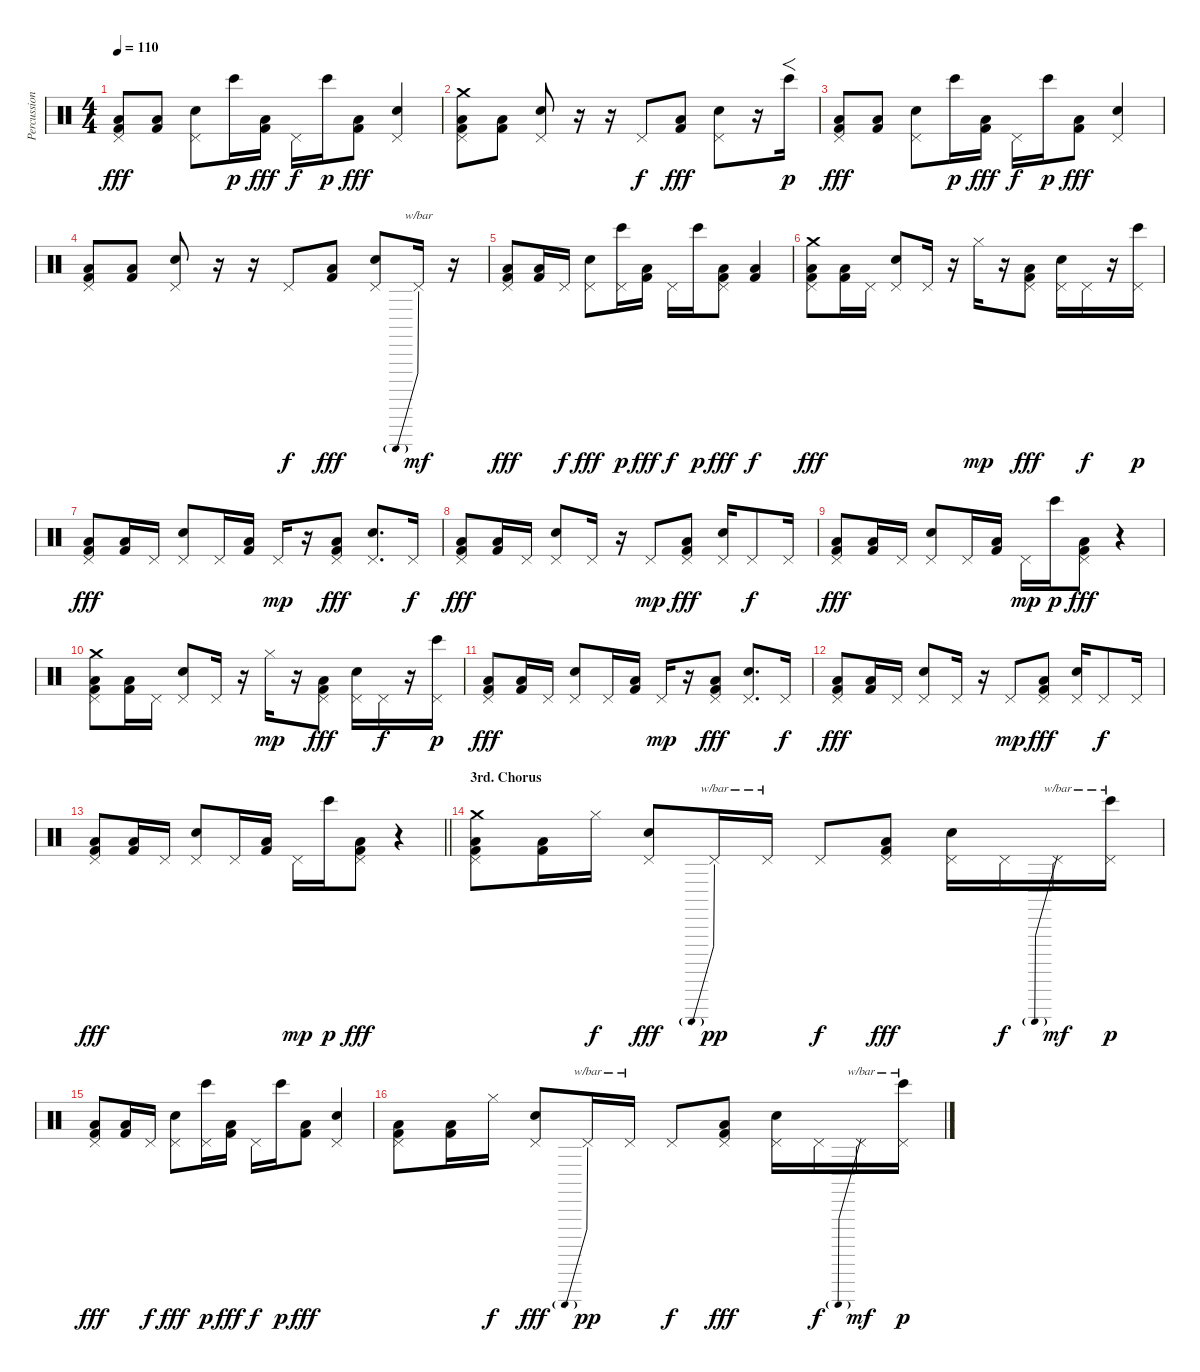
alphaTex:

\track ("Percussion" "Percussion") {instrument percussion}
\staff {score}
\articulation defaults
\ts (4 4)
\tempo 110
\clef neutral
\ks c
("Pedal Hi-Hat (hit)" "Kick (hit) 2" "Low Floor Tom (hit)"{be (hold 0 0 60 0)}).8{dy fff} ("Kick (hit) 2" "Low Floor Tom (hit)"{be (hold 0 0 60 0)}).8 ("Pedal Hi-Hat (hit)" "Hand Clap (hit)").8 "Bongo High (hit)".16{dy p} ("Kick (hit) 2" "Low Floor Tom (hit)"{be (hold 0 0 60 0)}).16{dy fff} "Pedal Hi-Hat (hit)".16{dy f} "Bongo High (hit)".16{dy p} ("Kick (hit) 2" "Low Floor Tom (hit)"{be (hold 0 0 60 0)}).8{dy fff} ("Pedal Hi-Hat (hit)" "Hand Clap (hit)").4 |
("Crash medium (hit)" "Pedal Hi-Hat (hit)" "Kick (hit) 2" "Low Floor Tom (hit)"{be (hold 0 0 60 0)}).8 ("Kick (hit) 2" "Low Floor Tom (hit)"{be (hold 0 0 60 0)}).8 ("Pedal Hi-Hat (hit)" "Hand Clap (hit)").8 r.16 r.16 "Pedal Hi-Hat (hit)".8{dy f} ("Kick (hit) 2" "Low Floor Tom (hit)"{be (hold 0 0 60 0)}).8{dy fff} ("Pedal Hi-Hat (hit)" "Hand Clap (hit)").8 r.16 "Bongo High (hit)".16{f dy p} |
("Pedal Hi-Hat (hit)" "Kick (hit) 2" "Low Floor Tom (hit)"{be (hold 0 0 60 0)}).8{dy fff} ("Kick (hit) 2" "Low Floor Tom (hit)"{be (hold 0 0 60 0)}).8 ("Pedal Hi-Hat (hit)" "Hand Clap (hit)").8 "Bongo High (hit)".16{dy p} ("Kick (hit) 2" "Low Floor Tom (hit)"{be (hold 0 0 60 0)}).16{dy fff} "Pedal Hi-Hat (hit)".16{dy f} "Bongo High (hit)".16{dy p} ("Kick (hit) 2" "Low Floor Tom (hit)"{be (hold 0 0 60 0)}).8{dy fff} ("Pedal Hi-Hat (hit)" "Hand Clap (hit)").4 |
("Pedal Hi-Hat (hit)" "Kick (hit) 2" "Low Floor Tom (hit)"{be (hold 0 0 60 0)}).8 ("Kick (hit) 2" "Low Floor Tom (hit)"{be (hold 0 0 60 0)}).8 ("Pedal Hi-Hat (hit)" "Hand Clap (hit)").8 r.16 r.16 "Pedal Hi-Hat (hit)".8{dy f} ("Kick (hit) 2" "Low Floor Tom (hit)"{be (hold 0 0 60 0)}).8{dy fff} ("Pedal Hi-Hat (hit)" "Hand Clap (hit)").8 "Pedal Hi-Hat (hit)".16{tbe (predive default 0 -24 60 -24) dy mf} r.16 |
("Pedal Hi-Hat (hit)" "Kick (hit) 2" "Low Floor Tom (hit)"{be (hold 0 0 60 0)}).8{dy fff} ("Kick (hit) 2" "Low Floor Tom (hit)"{be (hold 0 0 60 0)}).16 "Pedal Hi-Hat (hit)".16{dy f} ("Pedal Hi-Hat (hit)" "Hand Clap (hit)").8{dy fff} ("Pedal Hi-Hat (hit)" "Bongo High (hit)").16{dy p} ("Kick (hit) 2" "Low Floor Tom (hit)"{be (hold 0 0 60 0)}).16{dy fff} "Pedal Hi-Hat (hit)".16{dy f} "Bongo High (hit)".16{dy p} ("Pedal Hi-Hat (hit)" "Kick (hit) 2" "Low Floor Tom (hit)"{be (hold 0 0 60 0)}).8{dy fff} ("Kick (hit) 2" "Low Floor Tom (hit)"{be (hold 0 0 60 0)}).4{dy f} |
("Crash medium (hit)" "Pedal Hi-Hat (hit)" "Kick (hit) 2" "Low Floor Tom (hit)"{be (hold 0 0 60 0)}).8{dy fff} ("Kick (hit) 2" "Low Floor Tom (hit)"{be (hold 0 0 60 0)}).16 "Pedal Hi-Hat (hit)".16 ("Pedal Hi-Hat (hit)" "Hand Clap (hit)").8 "Pedal Hi-Hat (hit)".16 r.16 "Hi-Hat (closed)".16{dy mp} r.16 ("Pedal Hi-Hat (hit)" "Kick (hit) 2" "Low Floor Tom (hit)"{be (hold 0 0 60 0)}).8{dy fff} ("Pedal Hi-Hat (hit)" "Hand Clap (hit)").16 "Pedal Hi-Hat (hit)".16{dy f} r.16 ("Pedal Hi-Hat (hit)" "Bongo High (hit)").16{dy p} |
("Pedal Hi-Hat (hit)" "Kick (hit) 2" "Low Floor Tom (hit)"{be (hold 0 0 60 0)}).8{dy fff} ("Kick (hit) 2" "Low Floor Tom (hit)"{be (hold 0 0 60 0)}).16 "Pedal Hi-Hat (hit)".16 ("Pedal Hi-Hat (hit)" "Hand Clap (hit)").8 "Pedal Hi-Hat (hit)".16 ("Kick (hit) 2" "Low Floor Tom (hit)"{be (hold 0 0 60 0)}).16 "Pedal Hi-Hat (hit)".16{dy mp} r.16 ("Pedal Hi-Hat (hit)" "Kick (hit) 2" "Low Floor Tom (hit)"{be (hold 0 0 60 0)}).8{dy fff} ("Pedal Hi-Hat (hit)" "Hand Clap (hit)").8{d} "Pedal Hi-Hat (hit)".16{dy f} |
("Pedal Hi-Hat (hit)" "Kick (hit) 2" "Low Floor Tom (hit)"{be (hold 0 0 60 0)}).8{dy fff} ("Kick (hit) 2" "Low Floor Tom (hit)"{be (hold 0 0 60 0)}).16 "Pedal Hi-Hat (hit)".16 ("Pedal Hi-Hat (hit)" "Hand Clap (hit)").8 "Pedal Hi-Hat (hit)".16 r.16 "Pedal Hi-Hat (hit)".8{dy mp} ("Pedal Hi-Hat (hit)" "Kick (hit) 2" "Low Floor Tom (hit)"{be (hold 0 0 60 0)}).8{dy fff} ("Pedal Hi-Hat (hit)" "Hand Clap (hit)").16 "Pedal Hi-Hat (hit)".8{dy f} "Pedal Hi-Hat (hit)".16 |
("Pedal Hi-Hat (hit)" "Kick (hit) 2" "Low Floor Tom (hit)"{be (hold 0 0 60 0)}).8{dy fff} ("Kick (hit) 2" "Low Floor Tom (hit)"{be (hold 0 0 60 0)}).16 "Pedal Hi-Hat (hit)".16 ("Pedal Hi-Hat (hit)" "Hand Clap (hit)").8 "Pedal Hi-Hat (hit)".16 ("Kick (hit) 2" "Low Floor Tom (hit)"{be (hold 0 0 60 0)}).16 "Pedal Hi-Hat (hit)".16{dy mp} "Bongo High (hit)".16{dy p} ("Pedal Hi-Hat (hit)" "Kick (hit) 2" "Low Floor Tom (hit)"{be (hold 0 0 60 0)}).8{dy fff} r.4 |
("Crash medium (hit)" "Pedal Hi-Hat (hit)" "Kick (hit) 2" "Low Floor Tom (hit)"{be (hold 0 0 60 0)}).8 ("Kick (hit) 2" "Low Floor Tom (hit)"{be (hold 0 0 60 0)}).16 "Pedal Hi-Hat (hit)".16 ("Pedal Hi-Hat (hit)" "Hand Clap (hit)").8 "Pedal Hi-Hat (hit)".16 r.16 "Hi-Hat (closed)".16{dy mp} r.16 ("Pedal Hi-Hat (hit)" "Kick (hit) 2" "Low Floor Tom (hit)"{be (hold 0 0 60 0)}).8{dy fff} ("Pedal Hi-Hat (hit)" "Hand Clap (hit)").16 "Pedal Hi-Hat (hit)".16{dy f} r.16 ("Pedal Hi-Hat (hit)" "Bongo High (hit)").16{dy p} |
("Pedal Hi-Hat (hit)" "Kick (hit) 2" "Low Floor Tom (hit)"{be (hold 0 0 60 0)}).8{dy fff} ("Kick (hit) 2" "Low Floor Tom (hit)"{be (hold 0 0 60 0)}).16 "Pedal Hi-Hat (hit)".16 ("Pedal Hi-Hat (hit)" "Hand Clap (hit)").8 "Pedal Hi-Hat (hit)".16 ("Kick (hit) 2" "Low Floor Tom (hit)"{be (hold 0 0 60 0)}).16 "Pedal Hi-Hat (hit)".16{dy mp} r.16 ("Pedal Hi-Hat (hit)" "Kick (hit) 2" "Low Floor Tom (hit)"{be (hold 0 0 60 0)}).8{dy fff} ("Pedal Hi-Hat (hit)" "Hand Clap (hit)").8{d} "Pedal Hi-Hat (hit)".16{dy f} |
("Pedal Hi-Hat (hit)" "Kick (hit) 2" "Low Floor Tom (hit)"{be (hold 0 0 60 0)}).8{dy fff} ("Kick (hit) 2" "Low Floor Tom (hit)"{be (hold 0 0 60 0)}).16 "Pedal Hi-Hat (hit)".16 ("Pedal Hi-Hat (hit)" "Hand Clap (hit)").8 "Pedal Hi-Hat (hit)".16 r.16 "Pedal Hi-Hat (hit)".8{dy mp} ("Pedal Hi-Hat (hit)" "Kick (hit) 2" "Low Floor Tom (hit)"{be (hold 0 0 60 0)}).8{dy fff} ("Pedal Hi-Hat (hit)" "Hand Clap (hit)").16 "Pedal Hi-Hat (hit)".8{dy f} "Pedal Hi-Hat (hit)".16 |
\barLineRight lightlight
("Pedal Hi-Hat (hit)" "Kick (hit) 2" "Low Floor Tom (hit)"{be (hold 0 0 60 0)}).8{dy fff} ("Kick (hit) 2" "Low Floor Tom (hit)"{be (hold 0 0 60 0)}).16 "Pedal Hi-Hat (hit)".16 ("Pedal Hi-Hat (hit)" "Hand Clap (hit)").8 "Pedal Hi-Hat (hit)".16 ("Kick (hit) 2" "Low Floor Tom (hit)"{be (hold 0 0 60 0)}).16 "Pedal Hi-Hat (hit)".16{dy mp} "Bongo High (hit)".16{dy p} ("Pedal Hi-Hat (hit)" "Kick (hit) 2" "Low Floor Tom (hit)"{be (hold 0 0 60 0)}).8{dy fff} r.4 |
\section ("" "3rd. Chorus")
("Crash medium (hit)" "Pedal Hi-Hat (hit)" "Kick (hit) 2" "Low Floor Tom (hit)"{be (hold 0 0 60 0)}).8 ("Kick (hit) 2" "Low Floor Tom (hit)"{be (hold 0 0 60 0)}).16 "Hi-Hat (closed)".16{dy f} ("Pedal Hi-Hat (hit)" "Hand Clap (hit)").8{dy fff} "Pedal Hi-Hat (hit)".16{tbe (predive default 0 -24 60 -24) dy pp} "Pedal Hi-Hat (hit)".16{tbe (hold default 0 -14 60 -14)} "Pedal Hi-Hat (hit)".8{dy f} ("Pedal Hi-Hat (hit)" "Kick (hit) 2" "Low Floor Tom (hit)"{be (hold 0 0 60 0)}).8{dy fff} ("Pedal Hi-Hat (hit)" "Hand Clap (hit)").16 "Pedal Hi-Hat (hit)".16{dy f} "Pedal Hi-Hat (hit)".16{tbe (predive default 0 -24 60 -24) dy mf} ("Pedal Hi-Hat (hit)" "Bongo High (hit)").16{tbe (hold default 0 -14 60 -14) dy p} |
("Pedal Hi-Hat (hit)" "Kick (hit) 2" "Low Floor Tom (hit)"{be (hold 0 0 60 0)}).8{dy fff} ("Kick (hit) 2" "Low Floor Tom (hit)"{be (hold 0 0 60 0)}).16 "Pedal Hi-Hat (hit)".16{dy f} ("Pedal Hi-Hat (hit)" "Hand Clap (hit)").8{dy fff} ("Pedal Hi-Hat (hit)" "Bongo High (hit)").16{dy p} ("Kick (hit) 2" "Low Floor Tom (hit)"{be (hold 0 0 60 0)}).16{dy fff} "Pedal Hi-Hat (hit)".16{dy f} "Bongo High (hit)".16{dy p} ("Kick (hit) 2" "Low Floor Tom (hit)"{be (hold 0 0 60 0)}).8{dy fff} ("Pedal Hi-Hat (hit)" "Hand Clap (hit)").4 |
("Pedal Hi-Hat (hit)" "Kick (hit) 2" "Low Floor Tom (hit)"{be (hold 0 0 60 0)}).8 ("Kick (hit) 2" "Low Floor Tom (hit)"{be (hold 0 0 60 0)}).16 "Hi-Hat (closed)".16{dy f} ("Pedal Hi-Hat (hit)" "Hand Clap (hit)").8{dy fff} "Pedal Hi-Hat (hit)".16{tbe (predive default 0 -24 60 -24) dy pp} "Pedal Hi-Hat (hit)".16{tbe (hold default 0 -14 60 -14)} "Pedal Hi-Hat (hit)".8{dy f} ("Pedal Hi-Hat (hit)" "Kick (hit) 2" "Low Floor Tom (hit)"{be (hold 0 0 60 0)}).8{dy fff} ("Pedal Hi-Hat (hit)" "Hand Clap (hit)").16 "Pedal Hi-Hat (hit)".16{dy f} "Pedal Hi-Hat (hit)".16{tbe (predive default 0 -24 60 -24) dy mf} ("Pedal Hi-Hat (hit)" "Bongo High (hit)").16{tbe (hold default 0 -14 60 -14) dy p}
